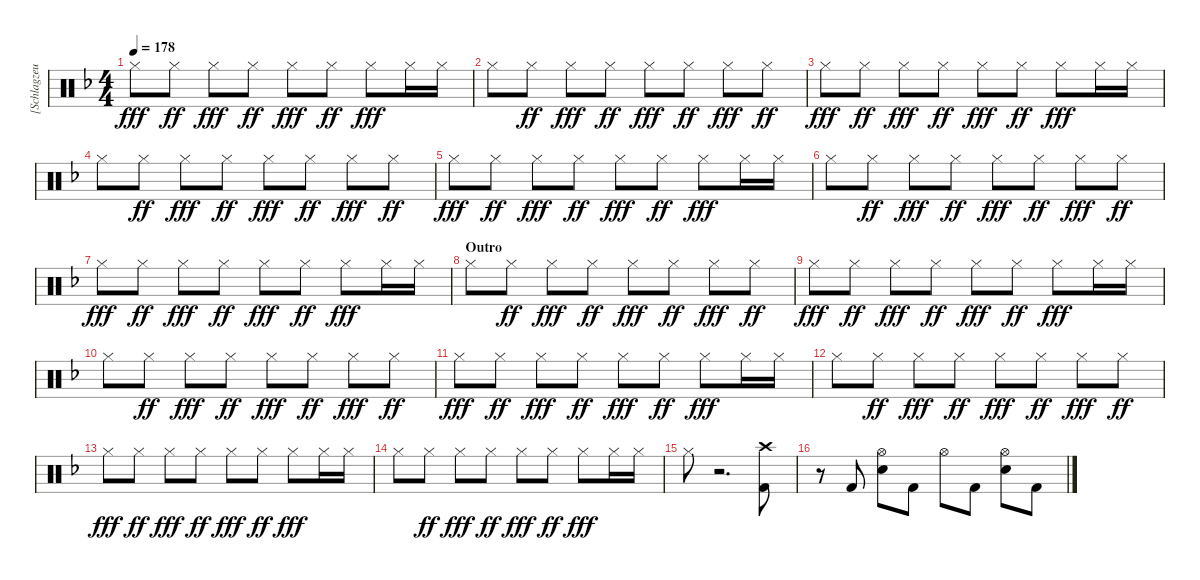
\track ("[Schlagzeug]" "[Schlagzeu") {instrument percussion}
\staff {score}
\articulation defaults
\ts (4 4)
\tempo 178
\clef neutral
\ks dminor "Hi-Hat (closed)".8{dy fff} "Hi-Hat (closed)".8{dy ff} "Hi-Hat (closed)".8{dy fff} "Hi-Hat (closed)".8{dy ff} "Hi-Hat (closed)".8{dy fff} "Hi-Hat (closed)".8{dy ff} "Hi-Hat (closed)".8{dy fff} "Hi-Hat (closed)".16 "Hi-Hat (closed)".16
|
"Hi-Hat (closed)".8 "Hi-Hat (closed)".8{dy ff} "Hi-Hat (closed)".8{dy fff} "Hi-Hat (closed)".8{dy ff} "Hi-Hat (closed)".8{dy fff} "Hi-Hat (closed)".8{dy ff} "Hi-Hat (closed)".8{dy fff} "Hi-Hat (closed)".8{dy ff} |
"Hi-Hat (closed)".8{dy fff} "Hi-Hat (closed)".8{dy ff} "Hi-Hat (closed)".8{dy fff} "Hi-Hat (closed)".8{dy ff} "Hi-Hat (closed)".8{dy fff} "Hi-Hat (closed)".8{dy ff} "Hi-Hat (closed)".8{dy fff} "Hi-Hat (closed)".16 "Hi-Hat (closed)".16 |
"Hi-Hat (closed)".8 "Hi-Hat (closed)".8{dy ff} "Hi-Hat (closed)".8{dy fff} "Hi-Hat (closed)".8{dy ff} "Hi-Hat (closed)".8{dy fff} "Hi-Hat (closed)".8{dy ff} "Hi-Hat (closed)".8{dy fff} "Hi-Hat (closed)".8{dy ff} |
"Hi-Hat (closed)".8{dy fff} "Hi-Hat (closed)".8{dy ff} "Hi-Hat (closed)".8{dy fff} "Hi-Hat (closed)".8{dy ff} "Hi-Hat (closed)".8{dy fff} "Hi-Hat (closed)".8{dy ff} "Hi-Hat (closed)".8{dy fff} "Hi-Hat (closed)".16 "Hi-Hat (closed)".16 |
"Hi-Hat (closed)".8 "Hi-Hat (closed)".8{dy ff} "Hi-Hat (closed)".8{dy fff} "Hi-Hat (closed)".8{dy ff} "Hi-Hat (closed)".8{dy fff} "Hi-Hat (closed)".8{dy ff} "Hi-Hat (closed)".8{dy fff} "Hi-Hat (closed)".8{dy ff} |
"Hi-Hat (closed)".8{dy fff} "Hi-Hat (closed)".8{dy ff} "Hi-Hat (closed)".8{dy fff} "Hi-Hat (closed)".8{dy ff} "Hi-Hat (closed)".8{dy fff} "Hi-Hat (closed)".8{dy ff} "Hi-Hat (closed)".8{dy fff} "Hi-Hat (closed)".16 "Hi-Hat (closed)".16 |
\section ("" "Outro")
"Hi-Hat (closed)".8 "Hi-Hat (closed)".8{dy ff} "Hi-Hat (closed)".8{dy fff} "Hi-Hat (closed)".8{dy ff} "Hi-Hat (closed)".8{dy fff} "Hi-Hat (closed)".8{dy ff} "Hi-Hat (closed)".8{dy fff} "Hi-Hat (closed)".8{dy ff} |
"Hi-Hat (closed)".8{dy fff} "Hi-Hat (closed)".8{dy ff} "Hi-Hat (closed)".8{dy fff} "Hi-Hat (closed)".8{dy ff} "Hi-Hat (closed)".8{dy fff} "Hi-Hat (closed)".8{dy ff} "Hi-Hat (closed)".8{dy fff} "Hi-Hat (closed)".16 "Hi-Hat (closed)".16 |
"Hi-Hat (closed)".8 "Hi-Hat (closed)".8{dy ff} "Hi-Hat (closed)".8{dy fff} "Hi-Hat (closed)".8{dy ff} "Hi-Hat (closed)".8{dy fff} "Hi-Hat (closed)".8{dy ff} "Hi-Hat (closed)".8{dy fff} "Hi-Hat (closed)".8{dy ff} |
"Hi-Hat (closed)".8{dy fff} "Hi-Hat (closed)".8{dy ff} "Hi-Hat (closed)".8{dy fff} "Hi-Hat (closed)".8{dy ff} "Hi-Hat (closed)".8{dy fff} "Hi-Hat (closed)".8{dy ff} "Hi-Hat (closed)".8{dy fff} "Hi-Hat (closed)".16 "Hi-Hat (closed)".16 |
"Hi-Hat (closed)".8 "Hi-Hat (closed)".8{dy ff} "Hi-Hat (closed)".8{dy fff} "Hi-Hat (closed)".8{dy ff} "Hi-Hat (closed)".8{dy fff} "Hi-Hat (closed)".8{dy ff} "Hi-Hat (closed)".8{dy fff} "Hi-Hat (closed)".8{dy ff} |
"Hi-Hat (closed)".8{dy fff} "Hi-Hat (closed)".8{dy ff} "Hi-Hat (closed)".8{dy fff} "Hi-Hat (closed)".8{dy ff} "Hi-Hat (closed)".8{dy fff} "Hi-Hat (closed)".8{dy ff} "Hi-Hat (closed)".8{dy fff} "Hi-Hat (closed)".16 "Hi-Hat (closed)".16 |
"Hi-Hat (closed)".8 "Hi-Hat (closed)".8{dy ff} "Hi-Hat (closed)".8{dy fff} "Hi-Hat (closed)".8{dy ff} "Hi-Hat (closed)".8{dy fff} "Hi-Hat (closed)".8{dy ff} "Hi-Hat (closed)".8{dy fff} "Hi-Hat (closed)".16 "Hi-Hat (closed)".16 |
"Hi-Hat (closed)".8 r.2{d} ("Crash high (hit)" "Kick (hit) 2").8 |
r.8 "Kick (hit) 2".8 ("Hi-Hat (open)" "Electric Snare (hit)").8 "Kick (hit) 2".8 "Hi-Hat (open)".8 "Kick (hit) 2".8 ("Hi-Hat (open)" "Electric Snare (hit)").8 "Kick (hit) 2".8
